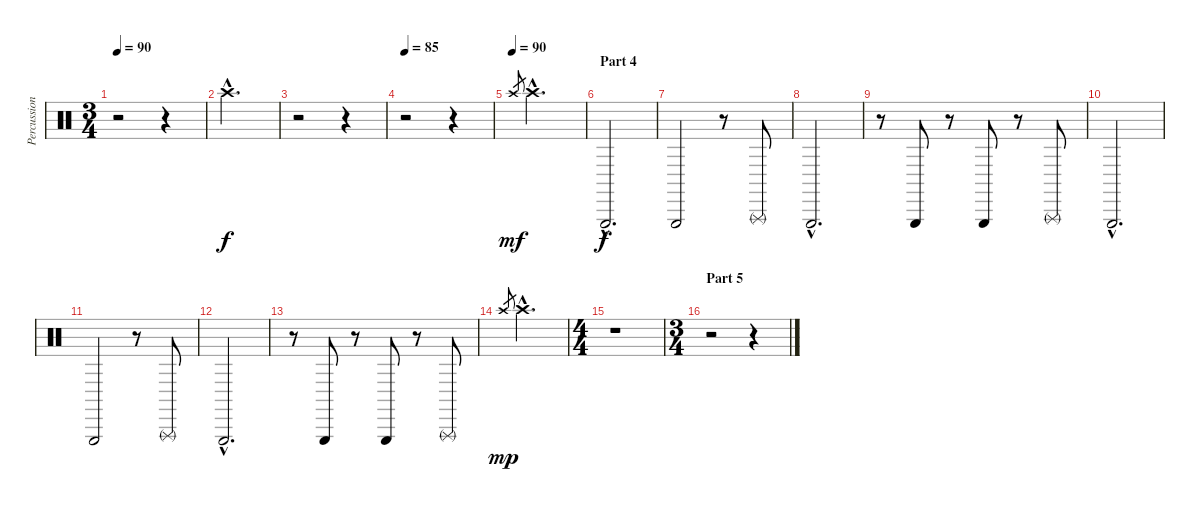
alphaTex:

\track ("Percussions" "Percussion") {instrument percussion}
\staff {score}
\articulation defaults
\ts (3 4)
\tempo 90
\clef neutral
\ks c
r.2{dy f} r.4 |
"Crash high (hit)"{hac}.2{d} |
r.2 r.4 |
\tempo 85
r.2 r.4 |
\tempo (90)
"Crash high (hit)".8{gr dy mf} "Crash high (hit)"{hac}.2{d} |
\section ("" "Part 4")
"Triangle (hit)"{hac}.2{d dy f} |
"Triangle (hit)".2 r.8 "Triangle (rnute)".8 |
"Triangle (hit)"{hac}.2{d} |
r.8 "Triangle (hit)".8 r.8 "Triangle (hit)".8 r.8 "Triangle (rnute)".8 |
"Triangle (hit)"{hac}.2{d} |
"Triangle (hit)".2 r.8 "Triangle (rnute)".8 |
"Triangle (hit)"{hac}.2{d} |
r.8 "Triangle (hit)".8 r.8 "Triangle (hit)".8 r.8 "Triangle (rnute)".8 |
"Crash high (hit)".8{gr dy mp} "Crash high (hit)"{hac}.2{d} |
\ts (4 4)
r.1 |
\ts (3 4)
\section ("" "Part 5")
r.2 r.4
